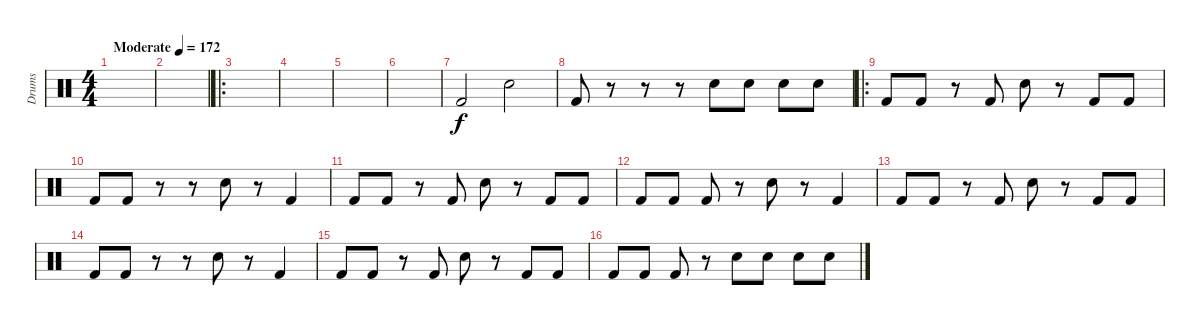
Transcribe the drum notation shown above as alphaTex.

\track ("Drums" "Drums") {instrument percussion}
\staff {score}
\articulation defaults
\ts (4 4)
\tempo (172 "Moderate")
\clef neutral
\ks c
|
|
\ro
|
|
|
|
"Kick (hit) 2".2 "Snare (hit) 2".2 |
"Kick (hit) 2".8 r.8 r.8 r.8 "Snare (hit) 2".8 "Snare (hit) 2".8 "Snare (hit) 2".8 "Snare (hit) 2".8 |
\ro "Kick (hit) 2".8 "Kick (hit) 2".8
r.8 "Kick (hit) 2".8 "Snare (hit) 2".8 r.8 "Kick (hit) 2".8 "Kick (hit) 2".8 |
"Kick (hit) 2".8 "Kick (hit) 2".8 r.8 r.8 "Snare (hit) 2".8 r.8 "Kick (hit) 2".4 |
"Kick (hit) 2".8 "Kick (hit) 2".8 r.8 "Kick (hit) 2".8 "Snare (hit) 2".8 r.8 "Kick (hit) 2".8 "Kick (hit) 2".8 |
"Kick (hit) 2".8 "Kick (hit) 2".8 "Kick (hit) 2".8 r.8 "Snare (hit) 2".8 r.8 "Kick (hit) 2".4 |
"Kick (hit) 2".8 "Kick (hit) 2".8 r.8 "Kick (hit) 2".8 "Snare (hit) 2".8 r.8 "Kick (hit) 2".8 "Kick (hit) 2".8 |
"Kick (hit) 2".8 "Kick (hit) 2".8 r.8 r.8 "Snare (hit) 2".8 r.8 "Kick (hit) 2".4 |
"Kick (hit) 2".8 "Kick (hit) 2".8 r.8 "Kick (hit) 2".8 "Snare (hit) 2".8 r.8 "Kick (hit) 2".8 "Kick (hit) 2".8 |
"Kick (hit) 2".8 "Kick (hit) 2".8 "Kick (hit) 2".8 r.8 "Snare (hit) 2".8 "Snare (hit) 2".8 "Snare (hit) 2".8 "Snare (hit) 2".8
